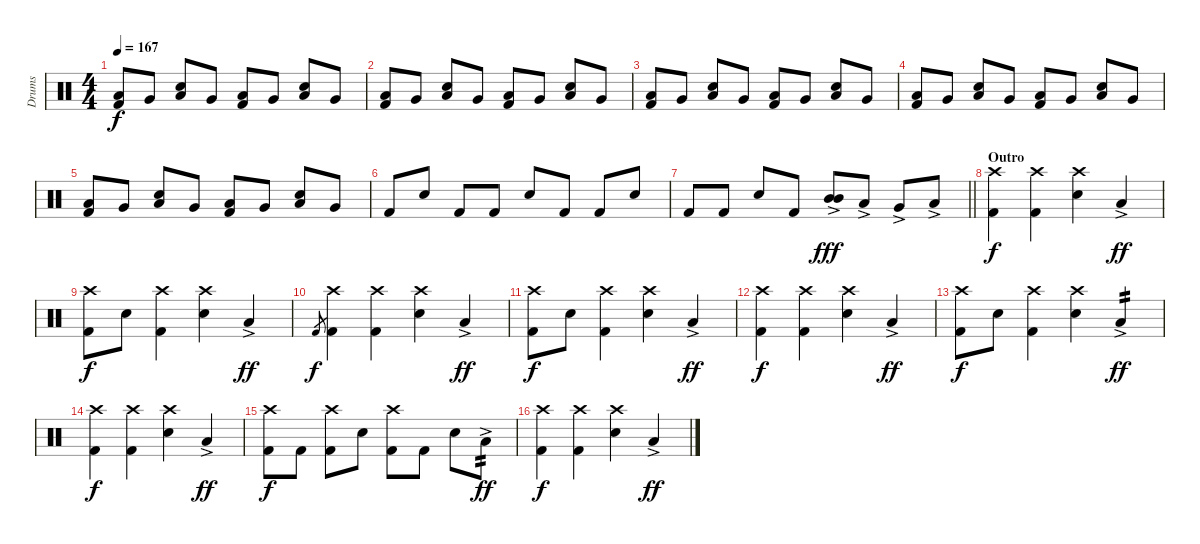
\track ("Drums" "Drums") {instrument percussion}
\staff {score}
\articulation defaults
\ts (4 4)
\tempo 167
\clef neutral
\ks c
("Low Floor Tom (hit)" "Kick (hit) 2").8{dy f} "Very Low Tom (hit)".8 ("Low Floor Tom (hit)" "Snare (hit) 2").8 "Very Low Tom (hit)".8 ("Low Floor Tom (hit)" "Kick (hit) 2").8 "Very Low Tom (hit)".8 ("Low Floor Tom (hit)" "Snare (hit) 2").8 "Very Low Tom (hit)".8 |
("Low Floor Tom (hit)" "Kick (hit) 2").8 "Very Low Tom (hit)".8 ("Low Floor Tom (hit)" "Snare (hit) 2").8 "Very Low Tom (hit)".8 ("Low Floor Tom (hit)" "Kick (hit) 2").8 "Very Low Tom (hit)".8 ("Low Floor Tom (hit)" "Snare (hit) 2").8 "Very Low Tom (hit)".8 |
("Low Floor Tom (hit)" "Kick (hit) 2").8 "Very Low Tom (hit)".8 ("Low Floor Tom (hit)" "Snare (hit) 2").8 "Very Low Tom (hit)".8 ("Low Floor Tom (hit)" "Kick (hit) 2").8 "Very Low Tom (hit)".8 ("Low Floor Tom (hit)" "Snare (hit) 2").8 "Very Low Tom (hit)".8 |
("Low Floor Tom (hit)" "Kick (hit) 2").8 "Very Low Tom (hit)".8 ("Low Floor Tom (hit)" "Snare (hit) 2").8 "Very Low Tom (hit)".8 ("Low Floor Tom (hit)" "Kick (hit) 2").8 "Very Low Tom (hit)".8 ("Low Floor Tom (hit)" "Snare (hit) 2").8 "Very Low Tom (hit)".8 |
("Low Floor Tom (hit)" "Kick (hit) 2").8 "Very Low Tom (hit)".8 ("Low Floor Tom (hit)" "Snare (hit) 2").8 "Very Low Tom (hit)".8 ("Low Floor Tom (hit)" "Kick (hit) 2").8 "Very Low Tom (hit)".8 ("Low Floor Tom (hit)" "Snare (hit) 2").8 "Very Low Tom (hit)".8 |
"Kick (hit) 2".8 "Snare (hit) 2".8 "Kick (hit) 2".8 "Kick (hit) 2".8 "Snare (hit) 2".8 "Kick (hit) 2".8 "Kick (hit) 2".8 "Snare (hit) 2".8 |
\barLineRight lightlight "Kick (hit) 2".8 "Kick (hit) 2".8 "Snare (hit) 2".8 "Kick (hit) 2".8
("Mid Tom (hit)"{ac} "Mid Tom (hit)"{ac}).8{bd 120 dy fff} "Low Tom (hit)"{ac}.8 "Very Low Tom (hit)"{ac}.8 "Low Floor Tom (hit)"{ac}.8 |
\section ("" "Outro")
("Crash high (hit)" "Kick (hit) 2").4{dy f} ("Crash high (hit)" "Kick (hit) 2").4 ("Crash high (hit)" "Snare (hit) 2").4 "Low Floor Tom (hit)"{ac}.4{dy ff} |
("Crash high (hit)" "Kick (hit) 2").8{dy f} "Snare (hit) 2".8 ("Crash high (hit)" "Kick (hit) 2").4 ("Crash high (hit)" "Snare (hit) 2").4 "Low Floor Tom (hit)"{ac}.4{dy ff} |
"Kick (hit) 2".8{gr dy f} ("Crash high (hit)" "Kick (hit) 2").4 ("Crash high (hit)" "Kick (hit) 2").4 ("Crash high (hit)" "Snare (hit) 2").4 "Low Floor Tom (hit)"{ac}.4{dy ff} |
("Crash high (hit)" "Kick (hit) 2").8{dy f} "Snare (hit) 2".8 ("Crash high (hit)" "Kick (hit) 2").4 ("Crash high (hit)" "Snare (hit) 2").4 "Low Floor Tom (hit)"{ac}.4{dy ff} |
("Crash high (hit)" "Kick (hit) 2").4{dy f} ("Crash high (hit)" "Kick (hit) 2").4 ("Crash high (hit)" "Snare (hit) 2").4 "Low Floor Tom (hit)"{ac}.4{dy ff} |
("Crash high (hit)" "Kick (hit) 2").8{dy f} "Snare (hit) 2".8 ("Crash high (hit)" "Kick (hit) 2").4 ("Crash high (hit)" "Snare (hit) 2").4 "Low Floor Tom (hit)"{ac}.4{tp 2 dy ff} |
("Crash high (hit)" "Kick (hit) 2").4{dy f} ("Crash high (hit)" "Kick (hit) 2").4 ("Crash high (hit)" "Snare (hit) 2").4 "Low Floor Tom (hit)"{ac}.4{dy ff} |
("Crash high (hit)" "Kick (hit) 2").8{dy f} "Kick (hit) 2".8 ("Crash high (hit)" "Kick (hit) 2").8 "Snare (hit) 2".8 ("Crash high (hit)" "Kick (hit) 2").8 "Kick (hit) 2".8 "Snare (hit) 2".8 "Low Floor Tom (hit)"{ac}.8{tp 2 dy ff} |
("Crash high (hit)" "Kick (hit) 2").4{dy f} ("Crash high (hit)" "Kick (hit) 2").4 ("Crash high (hit)" "Snare (hit) 2").4 "Low Floor Tom (hit)"{ac}.4{dy ff}
